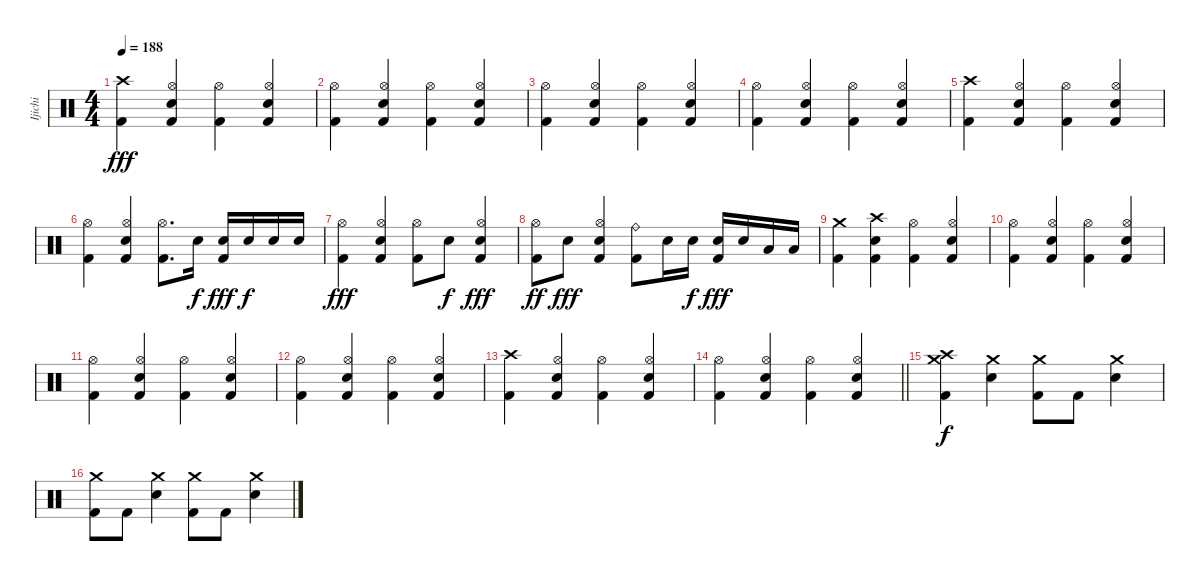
\track ("Ijichi" "Ijichi") {instrument percussion}
\staff {score}
\articulation defaults
\ts (4 4)
\tempo 188
\clef neutral
\ks c
("Crash high (hit)" "Kick (hit) 2").4{dy fff} ("Hi-Hat (open)" "Electric Snare (hit)" "Kick (hit) 2").4 ("Hi-Hat (open)" "Kick (hit) 2").4 ("Hi-Hat (open)" "Electric Snare (hit)" "Kick (hit) 2").4 |
("Hi-Hat (open)" "Kick (hit) 2").4 ("Hi-Hat (open)" "Electric Snare (hit)" "Kick (hit) 2").4 ("Hi-Hat (open)" "Kick (hit) 2").4 ("Hi-Hat (open)" "Electric Snare (hit)" "Kick (hit) 2").4 |
("Hi-Hat (open)" "Kick (hit) 2").4 ("Hi-Hat (open)" "Electric Snare (hit)" "Kick (hit) 2").4 ("Hi-Hat (open)" "Kick (hit) 2").4 ("Hi-Hat (open)" "Electric Snare (hit)" "Kick (hit) 2").4 |
("Hi-Hat (open)" "Kick (hit) 2").4 ("Hi-Hat (open)" "Electric Snare (hit)" "Kick (hit) 2").4 ("Hi-Hat (open)" "Kick (hit) 2").4 ("Hi-Hat (open)" "Electric Snare (hit)" "Kick (hit) 2").4 |
("Crash high (hit)" "Kick (hit) 2").4 ("Hi-Hat (open)" "Electric Snare (hit)" "Kick (hit) 2").4 ("Hi-Hat (open)" "Kick (hit) 2").4 ("Hi-Hat (open)" "Electric Snare (hit)" "Kick (hit) 2").4 |
("Hi-Hat (open)" "Kick (hit) 2").4 ("Hi-Hat (open)" "Electric Snare (hit)" "Kick (hit) 2").4 ("Hi-Hat (open)" "Kick (hit) 2").8{d} "Electric Snare (hit)".16{dy f} ("Electric Snare (hit)" "Kick (hit) 2").16{dy fff} "Electric Snare (hit)".16{dy f} "Electric Snare (hit)".16 "Electric Snare (hit)".16 |
("Hi-Hat (open)" "Kick (hit) 2").4{dy fff} ("Hi-Hat (open)" "Electric Snare (hit)" "Kick (hit) 2").4 ("Hi-Hat (open)" "Kick (hit) 2").8 "Electric Snare (hit)".8{dy f} ("Hi-Hat (open)" "Electric Snare (hit)" "Kick (hit) 2").4{dy fff} |
("Hi-Hat (open)" "Kick (hit) 2").8{dy ff} "Electric Snare (hit)".8{dy fff} ("Hi-Hat (open)" "Electric Snare (hit)" "Kick (hit) 2").4 ("Ride (bell)" "Kick (hit) 2").8 "Electric Snare (hit)".16 "Electric Snare (hit)".16{dy f} ("Electric Snare (hit)" "Kick (hit) 2").16{dy fff} "Electric Snare (hit)".16 "Low Tom (hit)".16 "Low Tom (hit)".16 |
("Crash medium (hit)" "Kick (hit) 2").4 ("Crash high (hit)" "Electric Snare (hit)" "Kick (hit) 2").4 ("Hi-Hat (open)" "Kick (hit) 2").4 ("Hi-Hat (open)" "Electric Snare (hit)" "Kick (hit) 2").4 |
("Hi-Hat (open)" "Kick (hit) 2").4 ("Hi-Hat (open)" "Electric Snare (hit)" "Kick (hit) 2").4 ("Hi-Hat (open)" "Kick (hit) 2").4 ("Hi-Hat (open)" "Electric Snare (hit)" "Kick (hit) 2").4 |
("Hi-Hat (open)" "Kick (hit) 2").4 ("Hi-Hat (open)" "Electric Snare (hit)" "Kick (hit) 2").4 ("Hi-Hat (open)" "Kick (hit) 2").4 ("Hi-Hat (open)" "Electric Snare (hit)" "Kick (hit) 2").4 |
("Hi-Hat (open)" "Kick (hit) 2").4 ("Hi-Hat (open)" "Electric Snare (hit)" "Kick (hit) 2").4 ("Hi-Hat (open)" "Kick (hit) 2").4 ("Hi-Hat (open)" "Electric Snare (hit)" "Kick (hit) 2").4 |
("Crash high (hit)" "Kick (hit) 2").4 ("Hi-Hat (open)" "Electric Snare (hit)" "Kick (hit) 2").4 ("Hi-Hat (open)" "Kick (hit) 2").4 ("Hi-Hat (open)" "Electric Snare (hit)" "Kick (hit) 2").4 |
\barLineRight lightlight
("Hi-Hat (open)" "Kick (hit) 2").4 ("Hi-Hat (open)" "Electric Snare (hit)" "Kick (hit) 2").4 ("Hi-Hat (open)" "Kick (hit) 2").4 ("Hi-Hat (open)" "Electric Snare (hit)" "Kick (hit) 2").4 |
("Crash high (hit)" "Crash medium (hit)" "Kick (hit) 2").4{dy f} ("Crash medium (hit)" "Electric Snare (hit)").4 ("Crash medium (hit)" "Kick (hit) 2").8 "Kick (hit) 2".8 ("Crash medium (hit)" "Electric Snare (hit)").4 |
("Crash medium (hit)" "Kick (hit) 2").8 "Kick (hit) 2".8 ("Crash medium (hit)" "Electric Snare (hit)").4 ("Crash medium (hit)" "Kick (hit) 2").8 "Kick (hit) 2".8 ("Crash medium (hit)" "Electric Snare (hit)").4
